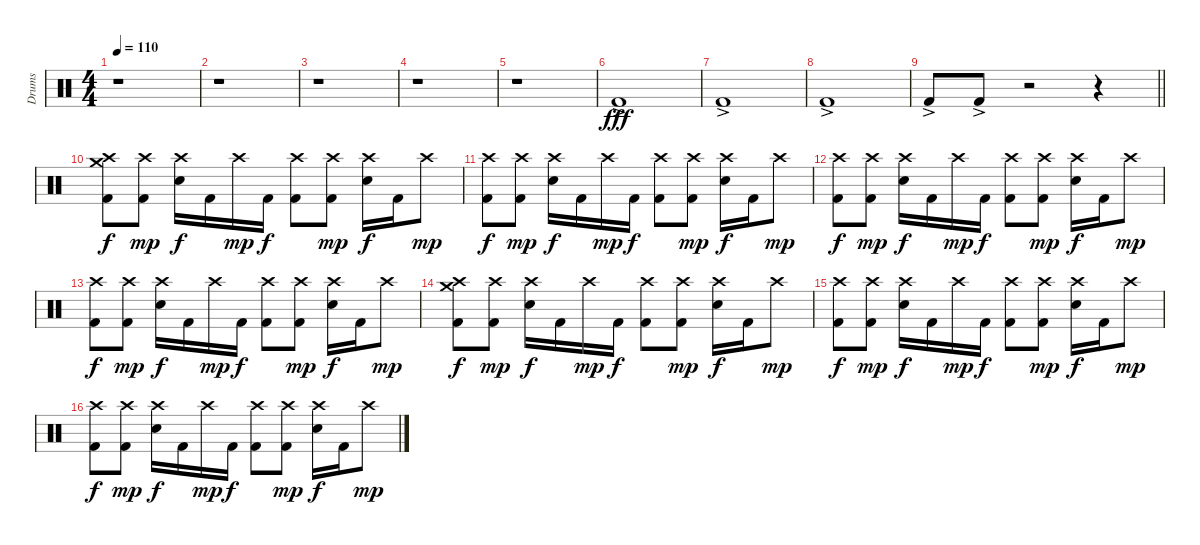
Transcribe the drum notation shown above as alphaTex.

\track ("Drums" "Drums") {instrument percussion}
\staff {score}
\articulation defaults
\ts (4 4)
\tempo 110
\clef neutral
\ks c
r.1{dy fff} |
r.1 |
r.1 |
r.1 |
r.1 |
"Kick (hit) 2"{ac}.1 |
"Kick (hit) 2"{ac}.1 |
"Kick (hit) 2"{ac}.1 |
\barLineRight lightlight "Kick (hit) 2"{ac}.8 "Kick (hit) 2"{ac}.8
r.2 r.4 |
("Crash high (hit)" "Crash medium (hit)" "Kick (hit) 2").8{dy f} ("Crash high (hit)" "Kick (hit) 2").8{dy mp} ("Crash high (hit)" "Snare (hit) 2").16{dy f} "Kick (hit) 2".16 "Crash high (hit)".16{dy mp} "Kick (hit) 2".16{dy f} ("Crash high (hit)" "Kick (hit) 2").8 ("Crash high (hit)" "Kick (hit) 2").8{dy mp} ("Crash high (hit)" "Snare (hit) 2").16{dy f} "Kick (hit) 2".16 "Crash high (hit)".8{dy mp} |
("Crash high (hit)" "Kick (hit) 2").8{dy f} ("Crash high (hit)" "Kick (hit) 2").8{dy mp} ("Crash high (hit)" "Snare (hit) 2").16{dy f} "Kick (hit) 2".16 "Crash high (hit)".16{dy mp} "Kick (hit) 2".16{dy f} ("Crash high (hit)" "Kick (hit) 2").8 ("Crash high (hit)" "Kick (hit) 2").8{dy mp} ("Crash high (hit)" "Snare (hit) 2").16{dy f} "Kick (hit) 2".16 "Crash high (hit)".8{dy mp} |
("Crash high (hit)" "Kick (hit) 2").8{dy f} ("Crash high (hit)" "Kick (hit) 2").8{dy mp} ("Crash high (hit)" "Snare (hit) 2").16{dy f} "Kick (hit) 2".16 "Crash high (hit)".16{dy mp} "Kick (hit) 2".16{dy f} ("Crash high (hit)" "Kick (hit) 2").8 ("Crash high (hit)" "Kick (hit) 2").8{dy mp} ("Crash high (hit)" "Snare (hit) 2").16{dy f} "Kick (hit) 2".16 "Crash high (hit)".8{dy mp} |
("Crash high (hit)" "Kick (hit) 2").8{dy f} ("Crash high (hit)" "Kick (hit) 2").8{dy mp} ("Crash high (hit)" "Snare (hit) 2").16{dy f} "Kick (hit) 2".16 "Crash high (hit)".16{dy mp} "Kick (hit) 2".16{dy f} ("Crash high (hit)" "Kick (hit) 2").8 ("Crash high (hit)" "Kick (hit) 2").8{dy mp} ("Crash high (hit)" "Snare (hit) 2").16{dy f} "Kick (hit) 2".16 "Crash high (hit)".8{dy mp} |
("Crash high (hit)" "Crash medium (hit)" "Kick (hit) 2").8{dy f} ("Crash high (hit)" "Kick (hit) 2").8{dy mp} ("Crash high (hit)" "Snare (hit) 2").16{dy f} "Kick (hit) 2".16 "Crash high (hit)".16{dy mp} "Kick (hit) 2".16{dy f} ("Crash high (hit)" "Kick (hit) 2").8 ("Crash high (hit)" "Kick (hit) 2").8{dy mp} ("Crash high (hit)" "Snare (hit) 2").16{dy f} "Kick (hit) 2".16 "Crash high (hit)".8{dy mp} |
("Crash high (hit)" "Kick (hit) 2").8{dy f} ("Crash high (hit)" "Kick (hit) 2").8{dy mp} ("Crash high (hit)" "Snare (hit) 2").16{dy f} "Kick (hit) 2".16 "Crash high (hit)".16{dy mp} "Kick (hit) 2".16{dy f} ("Crash high (hit)" "Kick (hit) 2").8 ("Crash high (hit)" "Kick (hit) 2").8{dy mp} ("Crash high (hit)" "Snare (hit) 2").16{dy f} "Kick (hit) 2".16 "Crash high (hit)".8{dy mp} |
("Crash high (hit)" "Kick (hit) 2").8{dy f} ("Crash high (hit)" "Kick (hit) 2").8{dy mp} ("Crash high (hit)" "Snare (hit) 2").16{dy f} "Kick (hit) 2".16 "Crash high (hit)".16{dy mp} "Kick (hit) 2".16{dy f} ("Crash high (hit)" "Kick (hit) 2").8 ("Crash high (hit)" "Kick (hit) 2").8{dy mp} ("Crash high (hit)" "Snare (hit) 2").16{dy f} "Kick (hit) 2".16 "Crash high (hit)".8{dy mp}
